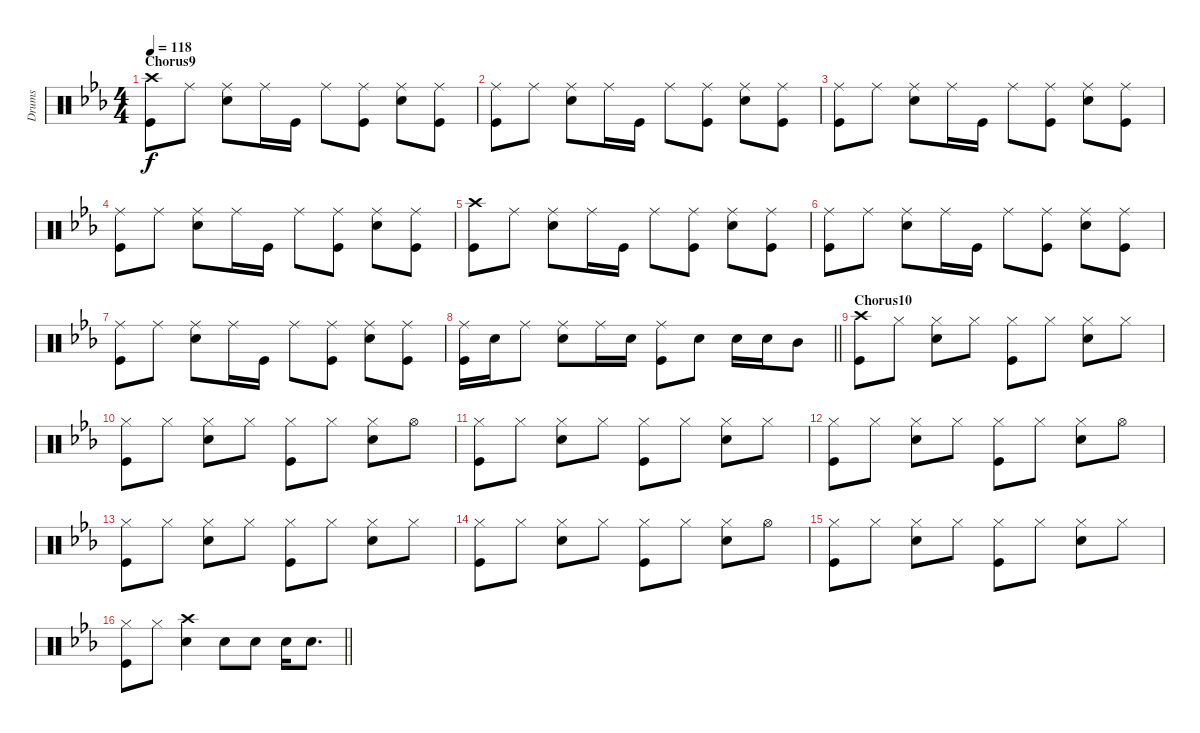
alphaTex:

\track ("Drums" "Drums") {instrument percussion}
\staff {score}
\articulation defaults
\ts (4 4)
\section ("" "Chorus9")
\tempo 118
\clef neutral
\ks cminor
("Crash high (hit)" "Kick (hit)").8{dy f} "Ride (middle)".8 ("Ride (middle)" "Snare (hit) 2").8 "Ride (middle)".16 "Kick (hit)".16 "Ride (middle)".8 ("Ride (middle)" "Kick (hit)").8 ("Ride (middle)" "Snare (hit) 2").8 ("Kick (hit)" "Ride (middle)").8 |
("Ride (middle)" "Kick (hit)").8 "Ride (middle)".8 ("Ride (middle)" "Snare (hit) 2").8 "Ride (middle)".16 "Kick (hit)".16 "Ride (middle)".8 ("Ride (middle)" "Kick (hit)").8 ("Ride (middle)" "Snare (hit) 2").8 ("Ride (middle)" "Kick (hit)").8 |
("Ride (middle)" "Kick (hit)").8 "Ride (middle)".8 ("Ride (middle)" "Snare (hit) 2").8 "Ride (middle)".16 "Kick (hit)".16 "Ride (middle)".8 ("Ride (middle)" "Kick (hit)").8 ("Ride (middle)" "Snare (hit) 2").8 ("Ride (middle)" "Kick (hit)").8 |
("Ride (middle)" "Kick (hit)").8 "Ride (middle)".8 ("Ride (middle)" "Snare (hit) 2").8 "Ride (middle)".16 "Kick (hit)".16 "Ride (middle)".8 ("Ride (middle)" "Kick (hit)").8 ("Ride (middle)" "Snare (hit) 2").8 ("Ride (middle)" "Kick (hit)").8 |
("Crash high (hit)" "Kick (hit)").8 "Ride (middle)".8 ("Ride (middle)" "Snare (hit) 2").8 "Ride (middle)".16 "Kick (hit)".16 "Ride (middle)".8 ("Ride (middle)" "Kick (hit)").8 ("Ride (middle)" "Snare (hit) 2").8 ("Kick (hit)" "Ride (middle)").8 |
("Ride (middle)" "Kick (hit)").8 "Ride (middle)".8 ("Ride (middle)" "Snare (hit) 2").8 "Ride (middle)".16 "Kick (hit)".16 "Ride (middle)".8 ("Ride (middle)" "Kick (hit)").8 ("Ride (middle)" "Snare (hit) 2").8 ("Ride (middle)" "Kick (hit)").8 |
("Ride (middle)" "Kick (hit)").8 "Ride (middle)".8 ("Ride (middle)" "Snare (hit) 2").8 "Ride (middle)".16 "Kick (hit)".16 "Ride (middle)".8 ("Ride (middle)" "Kick (hit)").8 ("Ride (middle)" "Snare (hit) 2").8 ("Ride (middle)" "Kick (hit)").8 |
\barLineRight lightlight
("Ride (middle)" "Kick (hit)").16 "Snare (hit) 2".16 "Ride (middle)".8 ("Ride (middle)" "Snare (hit) 2").8 "Ride (middle)".16 "Snare (hit) 2".16 ("Ride (middle)" "Kick (hit)").8 "Snare (hit) 2".8 "Snare (hit) 2".16 "Snare (hit) 2".16 "Mid Tom (hit)".8 |
\section ("" "Chorus10")
("Crash high (hit)" "Kick (hit)").8 "Hi-Hat (closed)".8 ("Hi-Hat (closed)" "Snare (hit) 2").8 "Hi-Hat (closed)".8 ("Hi-Hat (closed)" "Kick (hit)").8 "Hi-Hat (closed)".8 ("Hi-Hat (closed)" "Snare (hit) 2").8 "Hi-Hat (closed)".8 |
("Hi-Hat (closed)" "Kick (hit)").8 "Hi-Hat (closed)".8 ("Hi-Hat (closed)" "Snare (hit) 2").8 "Hi-Hat (closed)".8 ("Hi-Hat (closed)" "Kick (hit)").8 "Hi-Hat (closed)".8 ("Hi-Hat (closed)" "Snare (hit) 2").8 "Hi-Hat (open)".8 |
("Hi-Hat (closed)" "Kick (hit)").8 "Hi-Hat (closed)".8 ("Hi-Hat (closed)" "Snare (hit) 2").8 "Hi-Hat (closed)".8 ("Hi-Hat (closed)" "Kick (hit)").8 "Hi-Hat (closed)".8 ("Snare (hit) 2" "Hi-Hat (closed)").8 "Hi-Hat (closed)".8 |
("Hi-Hat (closed)" "Kick (hit)").8 "Hi-Hat (closed)".8 ("Hi-Hat (closed)" "Snare (hit) 2").8 "Hi-Hat (closed)".8 ("Hi-Hat (closed)" "Kick (hit)").8 "Hi-Hat (closed)".8 ("Hi-Hat (closed)" "Snare (hit) 2").8 "Hi-Hat (open)".8 |
("Hi-Hat (closed)" "Kick (hit)").8 "Hi-Hat (closed)".8 ("Hi-Hat (closed)" "Snare (hit) 2").8 "Hi-Hat (closed)".8 ("Hi-Hat (closed)" "Kick (hit)").8 "Hi-Hat (closed)".8 ("Snare (hit) 2" "Hi-Hat (closed)").8 "Hi-Hat (closed)".8 |
("Hi-Hat (closed)" "Kick (hit)").8 "Hi-Hat (closed)".8 ("Hi-Hat (closed)" "Snare (hit) 2").8 "Hi-Hat (closed)".8 ("Hi-Hat (closed)" "Kick (hit)").8 "Hi-Hat (closed)".8 ("Hi-Hat (closed)" "Snare (hit) 2").8 "Hi-Hat (open)".8 |
("Hi-Hat (closed)" "Kick (hit)").8 "Hi-Hat (closed)".8 ("Hi-Hat (closed)" "Snare (hit) 2").8 "Hi-Hat (closed)".8 ("Hi-Hat (closed)" "Kick (hit)").8 "Hi-Hat (closed)".8 ("Snare (hit) 2" "Hi-Hat (closed)").8 "Hi-Hat (closed)".8 |
\barLineRight lightlight
("Hi-Hat (closed)" "Kick (hit)").8 "Hi-Hat (closed)".8 ("Crash high (hit)" "Snare (hit) 2").4 "Snare (hit) 2".8 "Snare (hit) 2".8 "Snare (hit) 2".16 "Snare (hit) 2".8{d}
